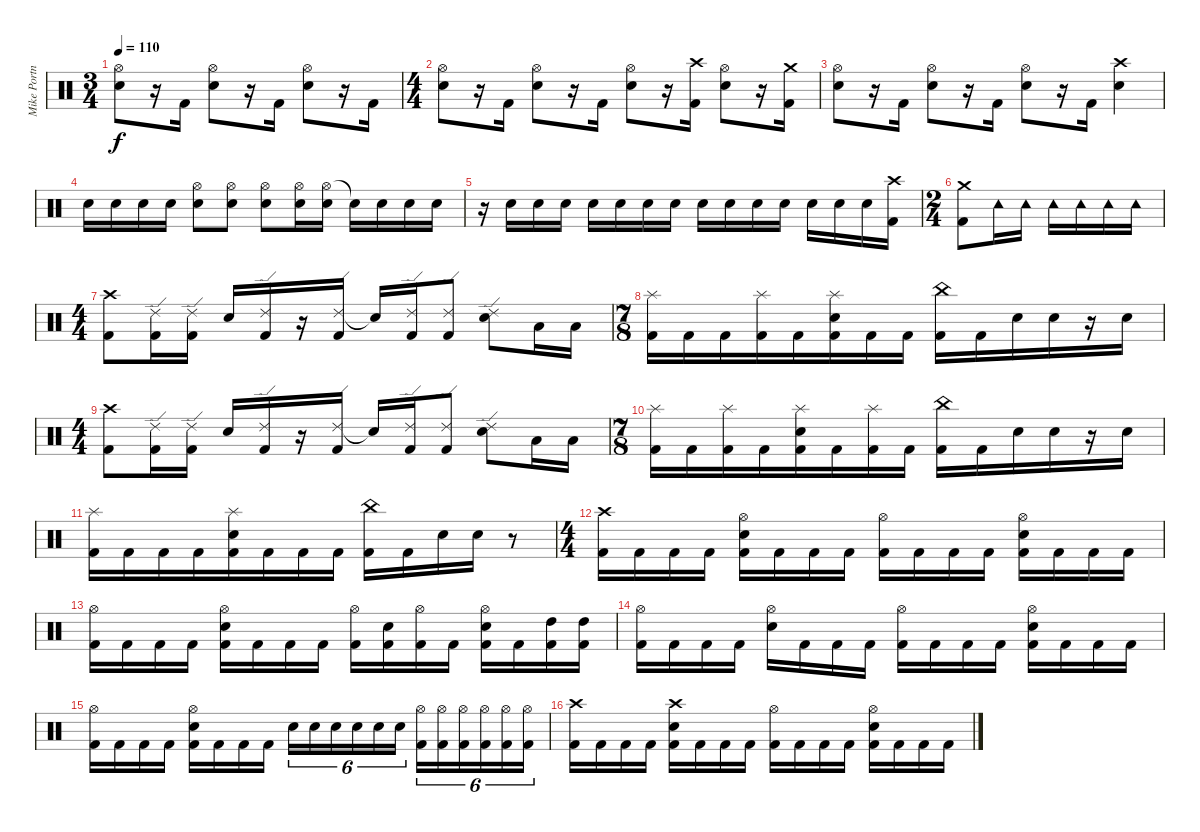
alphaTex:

\track ("Mike Portnoy - Drums" "Mike Portn") {instrument percussion}
\staff {score}
\articulation defaults
\ts (3 4)
\tempo 110
\clef neutral
\ks c
("Hi-Hat (open)" "Electric Snare (hit)").8{dy f} r.16 "Kick (hit) 2".16 ("Hi-Hat (open)" "Electric Snare (hit)").8 r.16 "Kick (hit) 2".16 ("Hi-Hat (open)" "Electric Snare (hit)").8 r.16 "Kick (hit) 2".16 |
\ts (4 4)
("Hi-Hat (open)" "Electric Snare (hit)").8 r.16 "Kick (hit) 2".16 ("Hi-Hat (open)" "Electric Snare (hit)").8 r.16 "Kick (hit) 2".16 ("Hi-Hat (open)" "Electric Snare (hit)").8 r.16 ("Crash high (hit)" "Kick (hit) 2").16 ("Hi-Hat (open)" "Electric Snare (hit)").8 r.16 ("Crash medium (hit)" "Kick (hit) 2").16 |
("Hi-Hat (open)" "Electric Snare (hit)").8 r.16 "Kick (hit) 2".16 ("Hi-Hat (open)" "Electric Snare (hit)").8 r.16 "Kick (hit) 2".16 ("Hi-Hat (open)" "Electric Snare (hit)").8 r.16 "Kick (hit) 2".16 ("Crash high (hit)" "Electric Snare (hit)").4 |
"Electric Snare (hit)".16 "Electric Snare (hit)".16 "Electric Snare (hit)".16 "Electric Snare (hit)".16 ("Hi-Hat (open)" "Electric Snare (hit)").8 ("Hi-Hat (open)" "Electric Snare (hit)").8 ("Hi-Hat (open)" "Electric Snare (hit)").8 ("Hi-Hat (open)" "Electric Snare (hit)").16 ("Hi-Hat (open)" "Electric Snare (hit)").16 "Snare (hit)"{t}.16 "Electric Snare (hit)".16 "Electric Snare (hit)".16 "Electric Snare (hit)".16 |
r.16 "Electric Snare (hit)".16 "Electric Snare (hit)".16 "Electric Snare (hit)".16 "Electric Snare (hit)".16 "Electric Snare (hit)".16 "Electric Snare (hit)".16 "Electric Snare (hit)".16 "Electric Snare (hit)".16 "Electric Snare (hit)".16 "Electric Snare (hit)".16 "Electric Snare (hit)".16 "Electric Snare (hit)".16 "Electric Snare (hit)".16 "Electric Snare (hit)".16 ("Crash high (hit)" "Kick (hit) 2").16 |
\ts (2 4)
("Crash medium (hit)" "Kick (hit) 2").8 "Tambourine (hit)".16 "Tambourine (hit)".16 "Tambourine (hit)".16 "Tambourine (hit)".16 "Tambourine (hit)".16 "Tambourine (hit)".16 |
\ts (4 4)
("Crash high (hit)" "Kick (hit) 2").8 ("Ride (edge) 2" "Kick (hit) 2").16 ("Ride (edge) 2" "Kick (hit) 2").16 "Electric Snare (hit)".16 ("Ride (edge) 2" "Kick (hit) 2").16 r.16 ("Ride (edge) 2" "Kick (hit) 2").16 "Snare (hit)"{t}.16 ("Ride (edge) 2" "Kick (hit) 2").16 ("Ride (edge) 2" "Kick (hit) 2").8 ("Ride (edge) 2" "Electric Snare (hit)").8 "Low Tom (hit)".16 "Low Tom (hit)".16 |
\ts (7 8)
("Splash (hit)" "Kick (hit) 2").16 "Kick (hit) 2".16 "Kick (hit) 2".16 ("Splash (hit)" "Kick (hit) 2").16 "Kick (hit) 2".16 ("Splash (hit)" "Electric Snare (hit)" "Kick (hit) 2").16 "Kick (hit) 2".16 "Kick (hit) 2".16 ("China (hit)" "Kick (hit) 2").16 "Kick (hit) 2".16 "Electric Snare (hit)".16 "Electric Snare (hit)".16 r.16 "Electric Snare (hit)".16 |
\ts (4 4)
("Crash high (hit)" "Kick (hit) 2").8 ("Ride (edge) 2" "Kick (hit) 2").16 ("Ride (edge) 2" "Kick (hit) 2").16 "Electric Snare (hit)".16 ("Ride (edge) 2" "Kick (hit) 2").16 r.16 ("Ride (edge) 2" "Kick (hit) 2").16 "Snare (hit)"{t}.16 ("Ride (edge) 2" "Kick (hit) 2").16 ("Ride (edge) 2" "Kick (hit) 2").8 ("Ride (edge) 2" "Electric Snare (hit)").8 "Low Tom (hit)".16 "Low Tom (hit)".16 |
\ts (7 8)
("Splash (hit)" "Kick (hit) 2").16 "Kick (hit) 2".16 ("Splash (hit)" "Kick (hit) 2").16 "Kick (hit) 2".16 ("Splash (hit)" "Electric Snare (hit)" "Kick (hit) 2").16 "Kick (hit) 2".16 ("Splash (hit)" "Kick (hit) 2").16 "Kick (hit) 2".16 ("China (hit)" "Kick (hit) 2").16 "Kick (hit) 2".16 "Electric Snare (hit)".16 "Electric Snare (hit)".16 r.16 "Electric Snare (hit)".16 |
("Splash (hit)" "Kick (hit) 2").16 "Kick (hit) 2".16 "Kick (hit) 2".16 "Kick (hit) 2".16 ("Splash (hit)" "Electric Snare (hit)" "Kick (hit) 2").16 "Kick (hit) 2".16 "Kick (hit) 2".16 "Kick (hit) 2".16 ("China (hit)" "Kick (hit) 2").16 "Kick (hit) 2".16 "Electric Snare (hit)".16 "Electric Snare (hit)".16 r.8 |
\ts (4 4)
("Crash high (hit)" "Kick (hit) 2").16 "Kick (hit) 2".16 "Kick (hit) 2".16 "Kick (hit) 2".16 ("Hi-Hat (open)" "Electric Snare (hit)" "Kick (hit) 2").16 "Kick (hit) 2".16 "Kick (hit) 2".16 "Kick (hit) 2".16 ("Hi-Hat (open)" "Kick (hit) 2").16 "Kick (hit) 2".16 "Kick (hit) 2".16 "Kick (hit) 2".16 ("Hi-Hat (open)" "Electric Snare (hit)" "Kick (hit) 2").16 "Kick (hit) 2".16 "Kick (hit) 2".16 "Kick (hit) 2".16 |
("Hi-Hat (open)" "Kick (hit) 2").16 "Kick (hit) 2".16 "Kick (hit) 2".16 "Kick (hit) 2".16 ("Hi-Hat (open)" "Electric Snare (hit)" "Kick (hit) 2").16 "Kick (hit) 2".16 "Kick (hit) 2".16 "Kick (hit) 2".16 ("Hi-Hat (open)" "Kick (hit) 2").16 ("Electric Snare (hit)" "Kick (hit) 2").16 ("Hi-Hat (open)" "Kick (hit) 2").16 "Kick (hit) 2".16 ("Hi-Hat (open)" "Electric Snare (hit)" "Kick (hit) 2").16 "Kick (hit) 2".16 ("High Tom (hit)" "Kick (hit) 2").16 ("High Tom (hit)" "Kick (hit) 2").16 |
("Hi-Hat (open)" "Kick (hit) 2").16 "Kick (hit) 2".16 "Kick (hit) 2".16 "Kick (hit) 2".16 ("Hi-Hat (open)" "Electric Snare (hit)").16 "Kick (hit) 2".16 "Kick (hit) 2".16 "Kick (hit) 2".16 ("Hi-Hat (open)" "Kick (hit) 2").16 "Kick (hit) 2".16 "Kick (hit) 2".16 "Kick (hit) 2".16 ("Hi-Hat (open)" "Electric Snare (hit)" "Kick (hit) 2").16 "Kick (hit) 2".16 "Kick (hit) 2".16 "Kick (hit) 2".16 |
("Hi-Hat (open)" "Kick (hit) 2").16 "Kick (hit) 2".16 "Kick (hit) 2".16 "Kick (hit) 2".16 ("Hi-Hat (open)" "Electric Snare (hit)" "Kick (hit) 2").16 "Kick (hit) 2".16 "Kick (hit) 2".16 "Kick (hit) 2".16 "Electric Snare (hit)".16{tu (6 4)} "Electric Snare (hit)".16{tu (6 4)} "Electric Snare (hit)".16{tu (6 4)} "Electric Snare (hit)".16{tu (6 4)} "Electric Snare (hit)".16{tu (6 4)} "Electric Snare (hit)".16{tu (6 4)} ("Hi-Hat (open)" "Kick (hit) 2").16{tu (6 4)} ("Hi-Hat (open)" "Kick (hit) 2").16{tu (6 4)} ("Hi-Hat (open)" "Kick (hit) 2").16{tu (6 4)} ("Hi-Hat (open)" "Kick (hit) 2").16{tu (6 4)} ("Hi-Hat (open)" "Kick (hit) 2").16{tu (6 4)} ("Hi-Hat (open)" "Kick (hit) 2").16{tu (6 4)} |
("Crash high (hit)" "Kick (hit) 2").16 "Kick (hit) 2".16 "Kick (hit) 2".16 "Kick (hit) 2".16 ("Crash high (hit)" "Electric Snare (hit)" "Kick (hit) 2").16 "Kick (hit) 2".16 "Kick (hit) 2".16 "Kick (hit) 2".16 ("Hi-Hat (open)" "Kick (hit) 2").16 "Kick (hit) 2".16 "Kick (hit) 2".16 "Kick (hit) 2".16 ("Hi-Hat (open)" "Electric Snare (hit)" "Kick (hit) 2").16 "Kick (hit) 2".16 "Kick (hit) 2".16 "Kick (hit) 2".16
